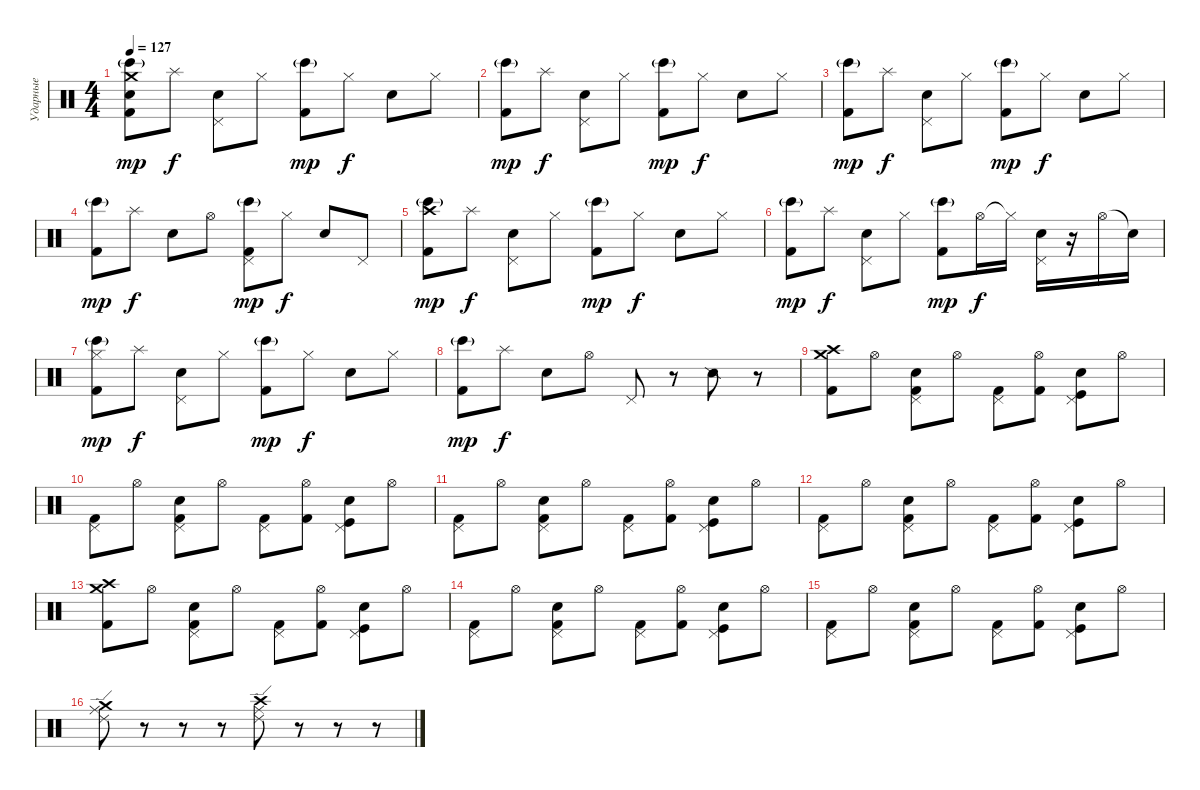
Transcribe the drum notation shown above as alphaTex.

\track ("Ударные" "Ударные") {instrument percussion}
\staff {score}
\articulation defaults
\ts (4 4)
\tempo 127
\clef neutral
\ks c
("Crash medium (hit)" "Bongo High (hit)"{g} "Electric Snare (hit)" "Kick (hit) 2").8{dy mp} "Splash (hit)".8{dy f} ("Pedal Hi-Hat (hit)" "Snare (hit) 2").8 "Hi-Hat (closed)".8 ("Bongo High (hit)"{g} "Kick (hit) 2").8{dy mp} "Hi-Hat (closed)".8{dy f} "Snare (hit) 2".8 "Hi-Hat (closed)".8 |
("Bongo High (hit)"{g} "Kick (hit) 2").8{dy mp} "Splash (hit)".8{dy f} ("Pedal Hi-Hat (hit)" "Snare (hit) 2").8 "Hi-Hat (closed)".8 ("Bongo High (hit)"{g} "Kick (hit) 2").8{dy mp} "Hi-Hat (closed)".8{dy f} "Snare (hit) 2".8 "Hi-Hat (closed)".8 |
("Bongo High (hit)"{g} "Kick (hit) 2").8{dy mp} "Splash (hit)".8{dy f} ("Pedal Hi-Hat (hit)" "Snare (hit) 2").8 "Hi-Hat (closed)".8 ("Bongo High (hit)"{g} "Kick (hit) 2").8{dy mp} "Hi-Hat (closed)".8{dy f} "Snare (hit) 2".8 "Hi-Hat (closed)".8 |
("Bongo High (hit)"{g} "Kick (hit) 2").8{dy mp} "Splash (hit)".8{dy f} "Snare (hit) 2".8 "Hi-Hat (open)".8 ("Pedal Hi-Hat (hit)" "Bongo High (hit)"{g} "Kick (hit) 2").8{dy mp} "Hi-Hat (closed)".8{dy f} "Snare (hit) 2".8 "Pedal Hi-Hat (hit)".8 |
("Crash high (hit)" "Bongo High (hit)"{g} "Kick (hit) 2").8{dy mp} "Splash (hit)".8{dy f} ("Pedal Hi-Hat (hit)" "Snare (hit) 2").8 "Hi-Hat (closed)".8 ("Bongo High (hit)"{g} "Kick (hit) 2").8{dy mp} "Hi-Hat (closed)".8{dy f} "Snare (hit) 2".8 "Hi-Hat (closed)".8 |
("Bongo High (hit)"{g} "Kick (hit) 2").8{dy mp} "Splash (hit)".8{dy f} ("Pedal Hi-Hat (hit)" "Snare (hit) 2").8 "Hi-Hat (closed)".8 ("Bongo High (hit)"{g} "Kick (hit) 2").8{dy mp} "Hi-Hat (open)".16{dy f} "Hi-Hat (closed)"{t}.16 ("Pedal Hi-Hat (hit)" "Snare (hit) 2").16 r.16 "Hi-Hat (open)".16 "Snare (hit)"{t}.16 |
("Hi-Hat (closed)" "Bongo High (hit)"{g} "Kick (hit) 2").8{dy mp} "Splash (hit)".8{dy f} ("Pedal Hi-Hat (hit)" "Snare (hit) 2").8 "Hi-Hat (closed)".8 ("Bongo High (hit)"{g} "Kick (hit) 2").8{dy mp} "Hi-Hat (closed)".8{dy f} "Snare (hit) 2".8 "Hi-Hat (closed)".8 |
("Bongo High (hit)"{g} "Kick (hit) 2").8{dy mp} "Splash (hit)".8{dy f} "Snare (hit) 2".8 "Hi-Hat (open)".8 "Pedal Hi-Hat (hit)".8 r.8 "Snare (side stick) 2".8 r.8 |
("Crash medium (hit)" "Crash high (hit)" "Kick (hit) 2").8 "Hi-Hat (open)".8 ("Pedal Hi-Hat (hit)" "Snare (hit) 2" "Kick (hit) 2").8 "Hi-Hat (open)".8 ("Pedal Hi-Hat (hit)" "Kick (hit) 2").8 ("Hi-Hat (open)" "Kick (hit) 2").8 ("Pedal Hi-Hat (hit)" "Snare (hit) 2" "Kick (hit)").8 "Hi-Hat (open)".8 |
("Pedal Hi-Hat (hit)" "Kick (hit) 2").8 "Hi-Hat (open)".8 ("Pedal Hi-Hat (hit)" "Snare (hit) 2" "Kick (hit) 2").8 "Hi-Hat (open)".8 ("Pedal Hi-Hat (hit)" "Kick (hit) 2").8 ("Hi-Hat (open)" "Kick (hit) 2").8 ("Pedal Hi-Hat (hit)" "Snare (hit) 2" "Kick (hit)").8 "Hi-Hat (open)".8 |
("Pedal Hi-Hat (hit)" "Kick (hit) 2").8 "Hi-Hat (open)".8 ("Pedal Hi-Hat (hit)" "Snare (hit) 2" "Kick (hit) 2").8 "Hi-Hat (open)".8 ("Pedal Hi-Hat (hit)" "Kick (hit) 2").8 ("Hi-Hat (open)" "Kick (hit) 2").8 ("Pedal Hi-Hat (hit)" "Snare (hit) 2" "Kick (hit)").8 "Hi-Hat (open)".8 |
("Pedal Hi-Hat (hit)" "Kick (hit) 2").8 "Hi-Hat (open)".8 ("Pedal Hi-Hat (hit)" "Snare (hit) 2" "Kick (hit) 2").8 "Hi-Hat (open)".8 ("Pedal Hi-Hat (hit)" "Kick (hit) 2").8 ("Hi-Hat (open)" "Kick (hit) 2").8 ("Pedal Hi-Hat (hit)" "Snare (hit) 2" "Kick (hit)").8 "Hi-Hat (open)".8 |
("Crash medium (hit)" "Crash high (hit)" "Kick (hit) 2").8 "Hi-Hat (open)".8 ("Pedal Hi-Hat (hit)" "Snare (hit) 2" "Kick (hit) 2").8 "Hi-Hat (open)".8 ("Pedal Hi-Hat (hit)" "Kick (hit) 2").8 ("Hi-Hat (open)" "Kick (hit) 2").8 ("Pedal Hi-Hat (hit)" "Snare (hit) 2" "Kick (hit)").8 "Hi-Hat (open)".8 |
("Pedal Hi-Hat (hit)" "Kick (hit) 2").8 "Hi-Hat (open)".8 ("Pedal Hi-Hat (hit)" "Snare (hit) 2" "Kick (hit) 2").8 "Hi-Hat (open)".8 ("Pedal Hi-Hat (hit)" "Kick (hit) 2").8 ("Hi-Hat (open)" "Kick (hit) 2").8 ("Pedal Hi-Hat (hit)" "Snare (hit) 2" "Kick (hit)").8 "Hi-Hat (open)".8 |
("Pedal Hi-Hat (hit)" "Kick (hit) 2").8 "Hi-Hat (open)".8 ("Pedal Hi-Hat (hit)" "Snare (hit) 2" "Kick (hit) 2").8 "Hi-Hat (open)".8 ("Pedal Hi-Hat (hit)" "Kick (hit) 2").8 ("Hi-Hat (open)" "Kick (hit) 2").8 ("Pedal Hi-Hat (hit)" "Snare (hit) 2" "Kick (hit)").8 "Hi-Hat (open)".8 |
("Crash medium (hit)" "Ride (middle)" "Ride (edge) 2").8 r.8 r.8 r.8 ("Crash high (hit)" "Ride (middle)" "Ride (edge) 2").8 r.8 r.8 r.8
